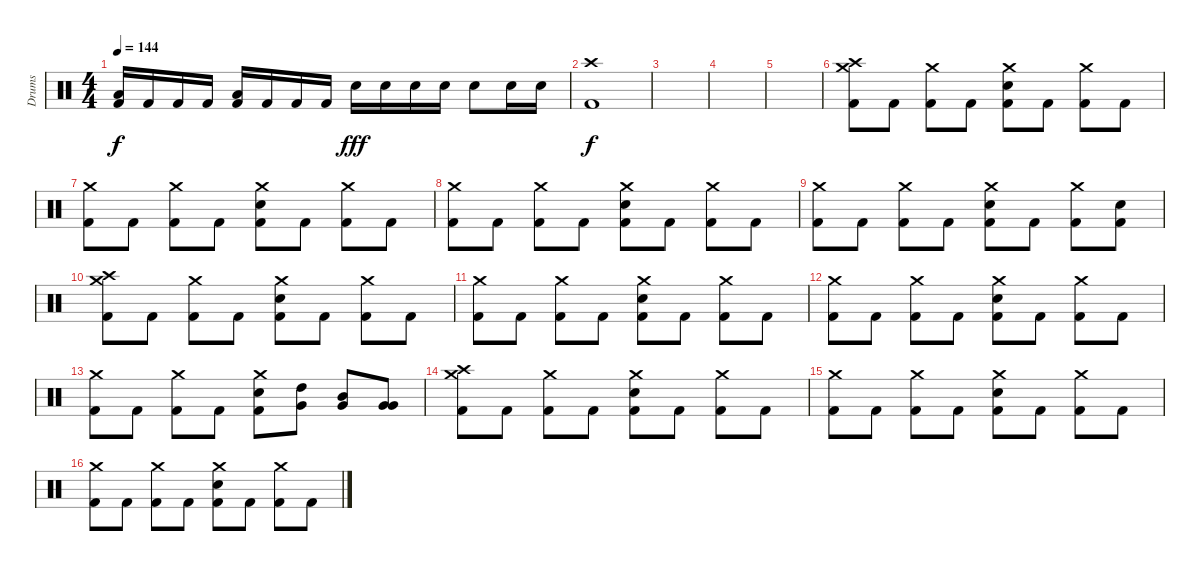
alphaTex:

\track ("Drums" "Drums") {instrument percussion}
\staff {score}
\articulation defaults
\ts (4 4)
\tempo 144
\clef neutral
\ks c
("Low Tom (hit)" "Kick (hit) 2").16{dy f} "Kick (hit) 2".16 "Kick (hit) 2".16 "Kick (hit) 2".16 ("Low Tom (hit)" "Kick (hit) 2").16 "Kick (hit) 2".16 "Kick (hit) 2".16 "Kick (hit) 2".16 "Electric Snare (hit)".16{dy fff} "Electric Snare (hit)".16 "Electric Snare (hit)".16 "Electric Snare (hit)".16 "Electric Snare (hit)".8 "Electric Snare (hit)".16 "Electric Snare (hit)".16 |
("Crash high (hit)" "Kick (hit) 2").1{dy f} |
|
|
|
("Crash high (hit)" "Crash medium (hit)" "Kick (hit) 2").8 "Kick (hit) 2".8 ("Crash medium (hit)" "Kick (hit) 2").8 "Kick (hit) 2".8 ("Crash medium (hit)" "Electric Snare (hit)" "Kick (hit) 2").8 "Kick (hit) 2".8 ("Crash medium (hit)" "Kick (hit) 2").8 "Kick (hit) 2".8 |
("Crash medium (hit)" "Kick (hit) 2").8 "Kick (hit) 2".8 ("Crash medium (hit)" "Kick (hit) 2").8 "Kick (hit) 2".8 ("Crash medium (hit)" "Electric Snare (hit)" "Kick (hit) 2").8 "Kick (hit) 2".8 ("Crash medium (hit)" "Kick (hit) 2").8 "Kick (hit) 2".8 |
("Crash medium (hit)" "Kick (hit) 2").8 "Kick (hit) 2".8 ("Crash medium (hit)" "Kick (hit) 2").8 "Kick (hit) 2".8 ("Crash medium (hit)" "Electric Snare (hit)" "Kick (hit) 2").8 "Kick (hit) 2".8 ("Crash medium (hit)" "Kick (hit) 2").8 "Kick (hit) 2".8 |
("Crash medium (hit)" "Kick (hit) 2").8 "Kick (hit) 2".8 ("Crash medium (hit)" "Kick (hit) 2").8 "Kick (hit) 2".8 ("Crash medium (hit)" "Electric Snare (hit)" "Kick (hit) 2").8 "Kick (hit) 2".8 ("Crash medium (hit)" "Kick (hit) 2").8 ("Electric Snare (hit)" "Kick (hit) 2").8 |
("Crash high (hit)" "Crash medium (hit)" "Kick (hit) 2").8 "Kick (hit) 2".8 ("Crash medium (hit)" "Kick (hit) 2").8 "Kick (hit) 2".8 ("Crash medium (hit)" "Electric Snare (hit)" "Kick (hit) 2").8 "Kick (hit) 2".8 ("Crash medium (hit)" "Kick (hit) 2").8 "Kick (hit) 2".8 |
("Crash medium (hit)" "Kick (hit) 2").8 "Kick (hit) 2".8 ("Crash medium (hit)" "Kick (hit) 2").8 "Kick (hit) 2".8 ("Crash medium (hit)" "Electric Snare (hit)" "Kick (hit) 2").8 "Kick (hit) 2".8 ("Crash medium (hit)" "Kick (hit) 2").8 "Kick (hit) 2".8 |
("Crash medium (hit)" "Kick (hit) 2").8 "Kick (hit) 2".8 ("Crash medium (hit)" "Kick (hit) 2").8 "Kick (hit) 2".8 ("Crash medium (hit)" "Electric Snare (hit)" "Kick (hit) 2").8 "Kick (hit) 2".8 ("Crash medium (hit)" "Kick (hit) 2").8 "Kick (hit) 2".8 |
("Crash medium (hit)" "Kick (hit) 2").8 "Kick (hit) 2".8 ("Crash medium (hit)" "Kick (hit) 2").8 "Kick (hit) 2".8 ("Crash medium (hit)" "Electric Snare (hit)" "Kick (hit) 2").8 ("High Tom (hit)" "Very Low Tom (hit)").8 ("Mid Tom (hit)" "Very Low Tom (hit)").8 ("Very Low Tom (hit)" "Very Low Tom (hit)").8 |
("Crash high (hit)" "Crash medium (hit)" "Kick (hit) 2").8 "Kick (hit) 2".8 ("Crash medium (hit)" "Kick (hit) 2").8 "Kick (hit) 2".8 ("Crash medium (hit)" "Electric Snare (hit)" "Kick (hit) 2").8 "Kick (hit) 2".8 ("Crash medium (hit)" "Kick (hit) 2").8 "Kick (hit) 2".8 |
("Crash medium (hit)" "Kick (hit) 2").8 "Kick (hit) 2".8 ("Crash medium (hit)" "Kick (hit) 2").8 "Kick (hit) 2".8 ("Crash medium (hit)" "Electric Snare (hit)" "Kick (hit) 2").8 "Kick (hit) 2".8 ("Crash medium (hit)" "Kick (hit) 2").8 "Kick (hit) 2".8 |
("Crash medium (hit)" "Kick (hit) 2").8 "Kick (hit) 2".8 ("Crash medium (hit)" "Kick (hit) 2").8 "Kick (hit) 2".8 ("Crash medium (hit)" "Electric Snare (hit)" "Kick (hit) 2").8 "Kick (hit) 2".8 ("Crash medium (hit)" "Kick (hit) 2").8 "Kick (hit) 2".8
